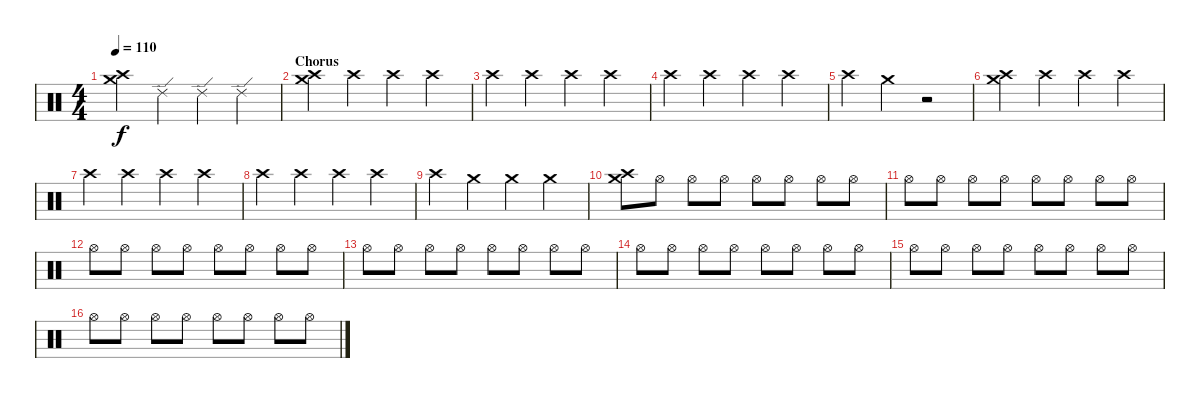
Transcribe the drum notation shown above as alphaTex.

\track "" {instrument percussion}
\staff {score}
\articulation defaults
\ts (4 4)
\tempo 110
\clef neutral
\ks c
("Crash medium (hit)" "Crash high (hit)").4{dy f} "Ride (edge) 2".4 "Ride (edge) 2".4 "Ride (edge) 2".4 |
\section ("" "Chorus")
("Crash medium (hit)" "Crash high (hit)").4 "Crash high (hit)".4 "Crash high (hit)".4 "Crash high (hit)".4 |
"Crash high (hit)".4 "Crash high (hit)".4 "Crash high (hit)".4 "Crash high (hit)".4 |
"Crash high (hit)".4 "Crash high (hit)".4 "Crash high (hit)".4 "Crash high (hit)".4 |
"Crash high (hit)".4 "Crash medium (hit)".4 r.2 |
("Crash medium (hit)" "Crash high (hit)").4 "Crash high (hit)".4 "Crash high (hit)".4 "Crash high (hit)".4 |
"Crash high (hit)".4 "Crash high (hit)".4 "Crash high (hit)".4 "Crash high (hit)".4 |
"Crash high (hit)".4 "Crash high (hit)".4 "Crash high (hit)".4 "Crash high (hit)".4 |
"Crash high (hit)".4 "Crash medium (hit)".4 "Crash medium (hit)".4 "Crash medium (hit)".4 |
("Crash medium (hit)" "Crash high (hit)").8 "Hi-Hat (open)".8 "Hi-Hat (open)".8 "Hi-Hat (open)".8 "Hi-Hat (open)".8 "Hi-Hat (open)".8 "Hi-Hat (open)".8 "Hi-Hat (open)".8 |
"Hi-Hat (open)".8 "Hi-Hat (open)".8 "Hi-Hat (open)".8 "Hi-Hat (open)".8 "Hi-Hat (open)".8 "Hi-Hat (open)".8 "Hi-Hat (open)".8 "Hi-Hat (open)".8 |
"Hi-Hat (open)".8 "Hi-Hat (open)".8 "Hi-Hat (open)".8 "Hi-Hat (open)".8 "Hi-Hat (open)".8 "Hi-Hat (open)".8 "Hi-Hat (open)".8 "Hi-Hat (open)".8 |
"Hi-Hat (open)".8 "Hi-Hat (open)".8 "Hi-Hat (open)".8 "Hi-Hat (open)".8 "Hi-Hat (open)".8 "Hi-Hat (open)".8 "Hi-Hat (open)".8 "Hi-Hat (open)".8 |
"Hi-Hat (open)".8 "Hi-Hat (open)".8 "Hi-Hat (open)".8 "Hi-Hat (open)".8 "Hi-Hat (open)".8 "Hi-Hat (open)".8 "Hi-Hat (open)".8 "Hi-Hat (open)".8 |
"Hi-Hat (open)".8 "Hi-Hat (open)".8 "Hi-Hat (open)".8 "Hi-Hat (open)".8 "Hi-Hat (open)".8 "Hi-Hat (open)".8 "Hi-Hat (open)".8 "Hi-Hat (open)".8 |
"Hi-Hat (open)".8 "Hi-Hat (open)".8 "Hi-Hat (open)".8 "Hi-Hat (open)".8 "Hi-Hat (open)".8 "Hi-Hat (open)".8 "Hi-Hat (open)".8 "Hi-Hat (open)".8
